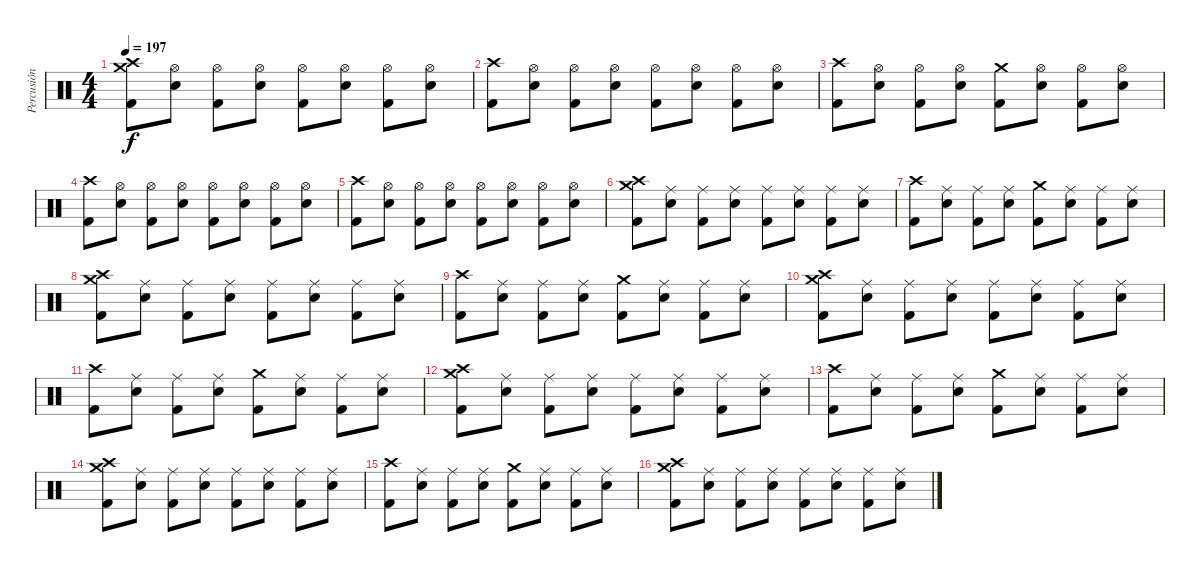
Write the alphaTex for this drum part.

\track ("Percusión" "Percusión") {instrument percussion}
\staff {score}
\articulation defaults
\ts (4 4)
\tempo 197
\clef neutral
\ks c
("Crash high (hit)" "Crash medium (hit)" "Kick (hit) 2").8{dy f} ("Hi-Hat (open)" "Electric Snare (hit)").8 ("Hi-Hat (open)" "Kick (hit) 2").8 ("Hi-Hat (open)" "Electric Snare (hit)").8 ("Hi-Hat (open)" "Kick (hit) 2").8 ("Hi-Hat (open)" "Electric Snare (hit)").8 ("Hi-Hat (open)" "Kick (hit) 2").8 ("Hi-Hat (open)" "Electric Snare (hit)").8 |
("Crash high (hit)" "Kick (hit) 2").8 ("Hi-Hat (open)" "Electric Snare (hit)").8 ("Hi-Hat (open)" "Kick (hit) 2").8 ("Hi-Hat (open)" "Electric Snare (hit)").8 ("Hi-Hat (open)" "Kick (hit) 2").8 ("Hi-Hat (open)" "Electric Snare (hit)").8 ("Hi-Hat (open)" "Kick (hit) 2").8 ("Hi-Hat (open)" "Electric Snare (hit)").8 |
("Crash high (hit)" "Kick (hit) 2").8 ("Hi-Hat (open)" "Electric Snare (hit)").8 ("Hi-Hat (open)" "Kick (hit) 2").8 ("Hi-Hat (open)" "Electric Snare (hit)").8 ("Crash medium (hit)" "Kick (hit) 2").8 ("Hi-Hat (open)" "Electric Snare (hit)").8 ("Hi-Hat (open)" "Kick (hit) 2").8 ("Hi-Hat (open)" "Electric Snare (hit)").8 |
("Crash high (hit)" "Kick (hit) 2").8 ("Hi-Hat (open)" "Electric Snare (hit)").8 ("Hi-Hat (open)" "Kick (hit) 2").8 ("Hi-Hat (open)" "Electric Snare (hit)").8 ("Hi-Hat (open)" "Kick (hit) 2").8 ("Hi-Hat (open)" "Electric Snare (hit)").8 ("Hi-Hat (open)" "Kick (hit) 2").8 ("Hi-Hat (open)" "Electric Snare (hit)").8 |
("Crash high (hit)" "Kick (hit) 2").8 ("Hi-Hat (open)" "Electric Snare (hit)").8 ("Hi-Hat (open)" "Kick (hit) 2").8 ("Hi-Hat (open)" "Electric Snare (hit)").8 ("Hi-Hat (open)" "Kick (hit) 2").8 ("Hi-Hat (open)" "Electric Snare (hit)").8 ("Hi-Hat (open)" "Kick (hit) 2").8 ("Hi-Hat (open)" "Electric Snare (hit)").8 |
("Crash high (hit)" "Crash medium (hit)" "Kick (hit) 2").8 ("Ride (middle)" "Electric Snare (hit)").8 ("Ride (middle)" "Kick (hit) 2").8 ("Ride (middle)" "Electric Snare (hit)").8 ("Ride (middle)" "Kick (hit) 2").8 ("Ride (middle)" "Electric Snare (hit)").8 ("Ride (middle)" "Kick (hit) 2").8 ("Ride (middle)" "Electric Snare (hit)").8 |
("Crash high (hit)" "Kick (hit) 2").8 ("Ride (middle)" "Electric Snare (hit)").8 ("Ride (middle)" "Kick (hit) 2").8 ("Ride (middle)" "Electric Snare (hit)").8 ("Crash medium (hit)" "Kick (hit) 2").8 ("Ride (middle)" "Electric Snare (hit)").8 ("Ride (middle)" "Kick (hit) 2").8 ("Ride (middle)" "Electric Snare (hit)").8 |
("Crash high (hit)" "Crash medium (hit)" "Kick (hit) 2").8 ("Ride (middle)" "Electric Snare (hit)").8 ("Ride (middle)" "Kick (hit) 2").8 ("Ride (middle)" "Electric Snare (hit)").8 ("Ride (middle)" "Kick (hit) 2").8 ("Ride (middle)" "Electric Snare (hit)").8 ("Ride (middle)" "Kick (hit) 2").8 ("Ride (middle)" "Electric Snare (hit)").8 |
("Crash high (hit)" "Kick (hit) 2").8 ("Ride (middle)" "Electric Snare (hit)").8 ("Ride (middle)" "Kick (hit) 2").8 ("Ride (middle)" "Electric Snare (hit)").8 ("Crash medium (hit)" "Kick (hit) 2").8 ("Ride (middle)" "Electric Snare (hit)").8 ("Ride (middle)" "Kick (hit) 2").8 ("Ride (middle)" "Electric Snare (hit)").8 |
("Crash high (hit)" "Crash medium (hit)" "Kick (hit) 2").8 ("Ride (middle)" "Electric Snare (hit)").8 ("Ride (middle)" "Kick (hit) 2").8 ("Ride (middle)" "Electric Snare (hit)").8 ("Ride (middle)" "Kick (hit) 2").8 ("Ride (middle)" "Electric Snare (hit)").8 ("Ride (middle)" "Kick (hit) 2").8 ("Ride (middle)" "Electric Snare (hit)").8 |
("Crash high (hit)" "Kick (hit) 2").8 ("Ride (middle)" "Electric Snare (hit)").8 ("Ride (middle)" "Kick (hit) 2").8 ("Ride (middle)" "Electric Snare (hit)").8 ("Crash medium (hit)" "Kick (hit) 2").8 ("Ride (middle)" "Electric Snare (hit)").8 ("Ride (middle)" "Kick (hit) 2").8 ("Ride (middle)" "Electric Snare (hit)").8 |
("Crash high (hit)" "Crash medium (hit)" "Kick (hit) 2").8 ("Ride (middle)" "Electric Snare (hit)").8 ("Ride (middle)" "Kick (hit) 2").8 ("Ride (middle)" "Electric Snare (hit)").8 ("Ride (middle)" "Kick (hit) 2").8 ("Ride (middle)" "Electric Snare (hit)").8 ("Ride (middle)" "Kick (hit) 2").8 ("Ride (middle)" "Electric Snare (hit)").8 |
("Crash high (hit)" "Kick (hit) 2").8 ("Ride (middle)" "Electric Snare (hit)").8 ("Ride (middle)" "Kick (hit) 2").8 ("Ride (middle)" "Electric Snare (hit)").8 ("Crash medium (hit)" "Kick (hit) 2").8 ("Ride (middle)" "Electric Snare (hit)").8 ("Ride (middle)" "Kick (hit) 2").8 ("Ride (middle)" "Electric Snare (hit)").8 |
("Crash high (hit)" "Crash medium (hit)" "Kick (hit) 2").8 ("Ride (middle)" "Electric Snare (hit)").8 ("Ride (middle)" "Kick (hit) 2").8 ("Ride (middle)" "Electric Snare (hit)").8 ("Ride (middle)" "Kick (hit) 2").8 ("Ride (middle)" "Electric Snare (hit)").8 ("Ride (middle)" "Kick (hit) 2").8 ("Ride (middle)" "Electric Snare (hit)").8 |
("Crash high (hit)" "Kick (hit) 2").8 ("Ride (middle)" "Electric Snare (hit)").8 ("Ride (middle)" "Kick (hit) 2").8 ("Ride (middle)" "Electric Snare (hit)").8 ("Crash medium (hit)" "Kick (hit) 2").8 ("Ride (middle)" "Electric Snare (hit)").8 ("Ride (middle)" "Kick (hit) 2").8 ("Ride (middle)" "Electric Snare (hit)").8 |
("Crash high (hit)" "Crash medium (hit)" "Kick (hit) 2").8 ("Ride (middle)" "Electric Snare (hit)").8 ("Ride (middle)" "Kick (hit) 2").8 ("Ride (middle)" "Electric Snare (hit)").8 ("Ride (middle)" "Kick (hit) 2").8 ("Ride (middle)" "Electric Snare (hit)").8 ("Ride (middle)" "Kick (hit) 2").8 ("Ride (middle)" "Electric Snare (hit)").8
